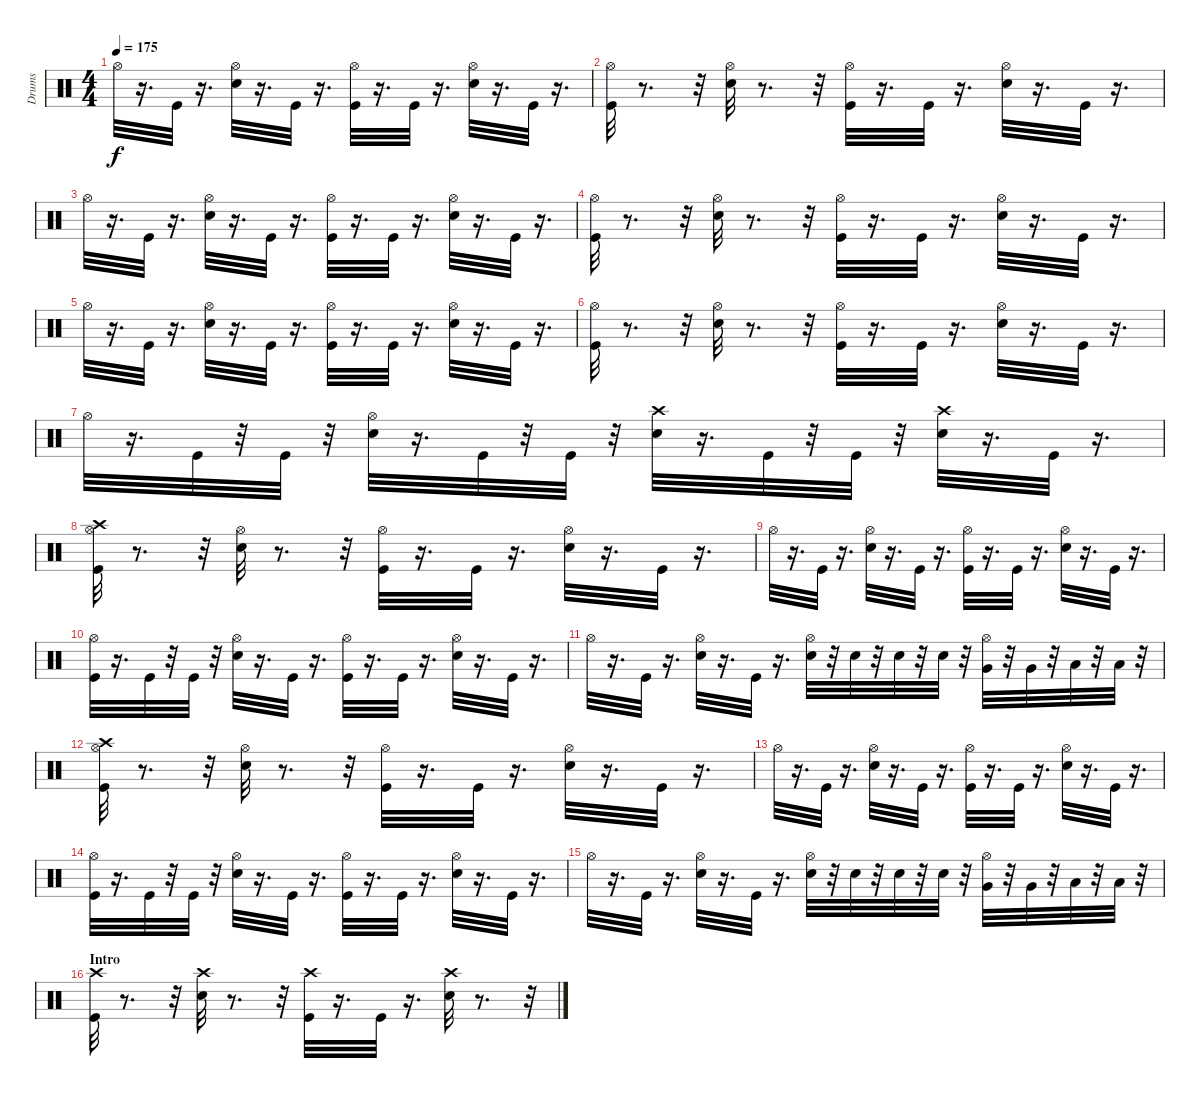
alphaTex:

\track ("Drums" "Drums") {instrument percussion}
\staff {score}
\articulation defaults
\ts (4 4)
\tempo 175
\clef neutral
\ks c "Hi-Hat (open)".32{dy f}
r.16{d} "Kick (hit)".32 r.16{d} ("Hi-Hat (open)" "Electric Snare (hit)").32 r.16{d} "Kick (hit)".32 r.16{d} ("Hi-Hat (open)" "Kick (hit)").32 r.16{d} "Kick (hit)".32 r.16{d} ("Hi-Hat (open)" "Electric Snare (hit)").32 r.16{d} "Kick (hit)".32 r.16{d} |
("Hi-Hat (open)" "Kick (hit)").32 r.8{d} r.32 ("Hi-Hat (open)" "Electric Snare (hit)").32 r.8{d} r.32 ("Hi-Hat (open)" "Kick (hit)").32 r.16{d} "Kick (hit)".32 r.16{d} ("Hi-Hat (open)" "Electric Snare (hit)").32 r.16{d} "Kick (hit)".32 r.16{d} |
"Hi-Hat (open)".32 r.16{d} "Kick (hit)".32 r.16{d} ("Hi-Hat (open)" "Electric Snare (hit)").32 r.16{d} "Kick (hit)".32 r.16{d} ("Hi-Hat (open)" "Kick (hit)").32 r.16{d} "Kick (hit)".32 r.16{d} ("Hi-Hat (open)" "Electric Snare (hit)").32 r.16{d} "Kick (hit)".32 r.16{d} |
("Hi-Hat (open)" "Kick (hit)").32 r.8{d} r.32 ("Hi-Hat (open)" "Electric Snare (hit)").32 r.8{d} r.32 ("Hi-Hat (open)" "Kick (hit)").32 r.16{d} "Kick (hit)".32 r.16{d} ("Hi-Hat (open)" "Electric Snare (hit)").32 r.16{d} "Kick (hit)".32 r.16{d} |
"Hi-Hat (open)".32 r.16{d} "Kick (hit)".32 r.16{d} ("Hi-Hat (open)" "Electric Snare (hit)").32 r.16{d} "Kick (hit)".32 r.16{d} ("Hi-Hat (open)" "Kick (hit)").32 r.16{d} "Kick (hit)".32 r.16{d} ("Hi-Hat (open)" "Electric Snare (hit)").32 r.16{d} "Kick (hit)".32 r.16{d} |
("Hi-Hat (open)" "Kick (hit)").32 r.8{d} r.32 ("Hi-Hat (open)" "Electric Snare (hit)").32 r.8{d} r.32 ("Hi-Hat (open)" "Kick (hit)").32 r.16{d} "Kick (hit)".32 r.16{d} ("Hi-Hat (open)" "Electric Snare (hit)").32 r.16{d} "Kick (hit)".32 r.16{d} |
"Hi-Hat (open)".32 r.16{d} "Kick (hit)".32 r.32 "Kick (hit)".32 r.32 ("Hi-Hat (open)" "Electric Snare (hit)").32 r.16{d} "Kick (hit)".32 r.32 "Kick (hit)".32 r.32 ("Crash high (hit)" "Electric Snare (hit)").32 r.16{d} "Kick (hit)".32 r.32 "Kick (hit)".32 r.32 ("Crash high (hit)" "Electric Snare (hit)").32 r.16{d} "Kick (hit)".32 r.16{d} |
("Crash high (hit)" "Hi-Hat (open)" "Kick (hit)").32 r.8{d} r.32 ("Hi-Hat (open)" "Electric Snare (hit)").32 r.8{d} r.32 ("Hi-Hat (open)" "Kick (hit)").32 r.16{d} "Kick (hit)".32 r.16{d} ("Hi-Hat (open)" "Electric Snare (hit)").32 r.16{d} "Kick (hit)".32 r.16{d} |
"Hi-Hat (open)".32 r.16{d} "Kick (hit)".32 r.16{d} ("Hi-Hat (open)" "Electric Snare (hit)").32 r.16{d} "Kick (hit)".32 r.16{d} ("Hi-Hat (open)" "Kick (hit)").32 r.16{d} "Kick (hit)".32 r.16{d} ("Hi-Hat (open)" "Electric Snare (hit)").32 r.16{d} "Kick (hit)".32 r.16{d} |
("Hi-Hat (open)" "Kick (hit)").32 r.16{d} "Kick (hit)".32 r.32 "Kick (hit)".32 r.32 ("Hi-Hat (open)" "Electric Snare (hit)").32 r.16{d} "Kick (hit)".32 r.16{d} ("Hi-Hat (open)" "Kick (hit)").32 r.16{d} "Kick (hit)".32 r.16{d} ("Hi-Hat (open)" "Electric Snare (hit)").32 r.16{d} "Kick (hit)".32 r.16{d} |
"Hi-Hat (open)".32 r.16{d} "Kick (hit)".32 r.16{d} ("Hi-Hat (open)" "Electric Snare (hit)").32 r.16{d} "Kick (hit)".32 r.16{d} ("Electric Snare (hit)" "Hi-Hat (open)").32 r.32 "Electric Snare (hit)".32 r.32 "Electric Snare (hit)".32 r.32 "Electric Snare (hit)".32 r.32 ("Hi-Hat (open)" "Very Low Tom (hit)").32 r.32 "Very Low Tom (hit)".32 r.32 "Low Floor Tom (hit)".32 r.32 "Low Floor Tom (hit)".32 r.32 |
("Crash high (hit)" "Hi-Hat (open)" "Kick (hit)").32 r.8{d} r.32 ("Hi-Hat (open)" "Electric Snare (hit)").32 r.8{d} r.32 ("Hi-Hat (open)" "Kick (hit)").32 r.16{d} "Kick (hit)".32 r.16{d} ("Hi-Hat (open)" "Electric Snare (hit)").32 r.16{d} "Kick (hit)".32 r.16{d} |
"Hi-Hat (open)".32 r.16{d} "Kick (hit)".32 r.16{d} ("Hi-Hat (open)" "Electric Snare (hit)").32 r.16{d} "Kick (hit)".32 r.16{d} ("Hi-Hat (open)" "Kick (hit)").32 r.16{d} "Kick (hit)".32 r.16{d} ("Hi-Hat (open)" "Electric Snare (hit)").32 r.16{d} "Kick (hit)".32 r.16{d} |
("Hi-Hat (open)" "Kick (hit)").32 r.16{d} "Kick (hit)".32 r.32 "Kick (hit)".32 r.32 ("Hi-Hat (open)" "Electric Snare (hit)").32 r.16{d} "Kick (hit)".32 r.16{d} ("Hi-Hat (open)" "Kick (hit)").32 r.16{d} "Kick (hit)".32 r.16{d} ("Hi-Hat (open)" "Electric Snare (hit)").32 r.16{d} "Kick (hit)".32 r.16{d} |
"Hi-Hat (open)".32 r.16{d} "Kick (hit)".32 r.16{d} ("Hi-Hat (open)" "Electric Snare (hit)").32 r.16{d} "Kick (hit)".32 r.16{d} ("Electric Snare (hit)" "Hi-Hat (open)").32 r.32 "Electric Snare (hit)".32 r.32 "Electric Snare (hit)".32 r.32 "Electric Snare (hit)".32 r.32 ("Hi-Hat (open)" "Very Low Tom (hit)").32 r.32 "Very Low Tom (hit)".32 r.32 "Low Floor Tom (hit)".32 r.32 "Low Floor Tom (hit)".32 r.32 |
\section ("" "Intro")
("Crash high (hit)" "Kick (hit)").32 r.8{d} r.32 ("Crash high (hit)" "Electric Snare (hit)").32 r.8{d} r.32 ("Kick (hit)" "Crash high (hit)").32 r.16{d} "Kick (hit)".32 r.16{d} ("Crash high (hit)" "Electric Snare (hit)").32 r.8{d} r.32
